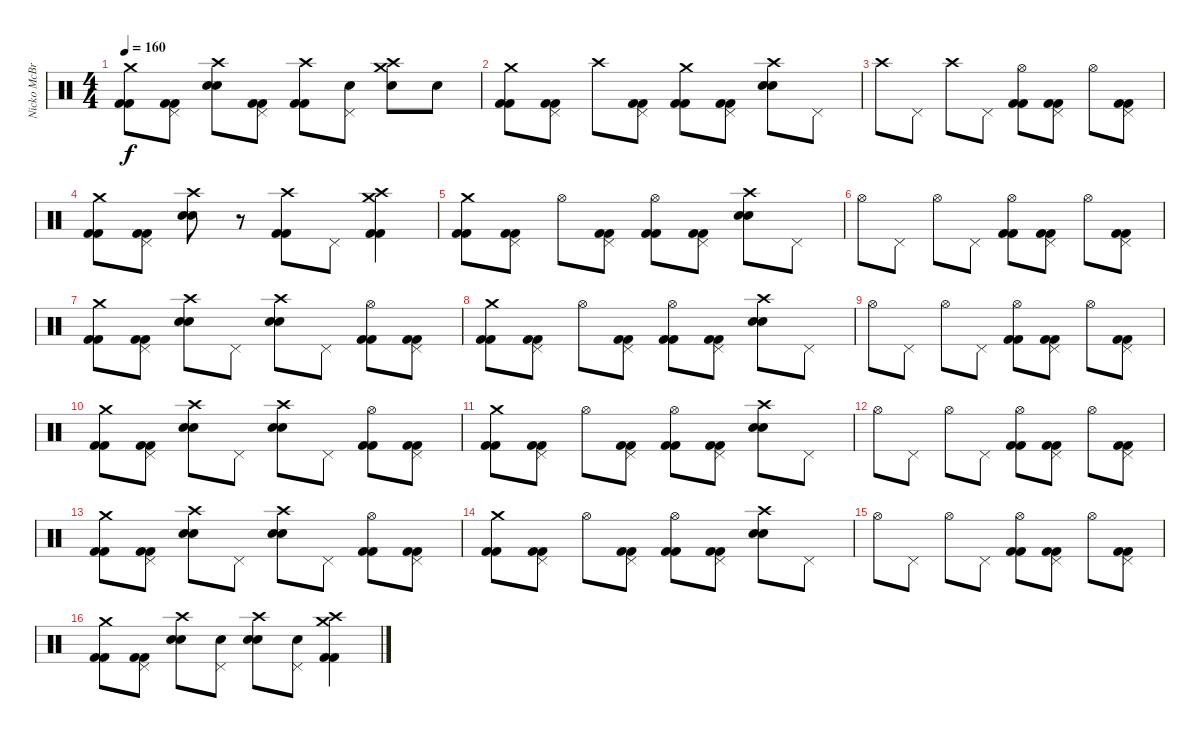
\track ("Nicko McBrain" "Nicko McBr") {instrument percussion}
\staff {score}
\articulation defaults
\ts (4 4)
\tempo 160
\clef neutral
\ks c
("Crash medium (hit)" "Kick (hit) 2" "Kick (hit) 2").8{dy f} ("Pedal Hi-Hat (hit)" "Kick (hit) 2" "Kick (hit) 2").8 ("Crash high (hit)" "Snare (hit) 2" "Snare (hit) 2").8 ("Pedal Hi-Hat (hit)" "Kick (hit) 2" "Kick (hit) 2").8 ("Crash high (hit)" "Kick (hit) 2" "Kick (hit) 2").8 ("Pedal Hi-Hat (hit)" "Snare (hit) 2").8 ("Crash high (hit)" "Crash medium (hit)" "Snare (hit) 2").8 "Snare (hit) 2".8 |
("Crash medium (hit)" "Kick (hit) 2" "Kick (hit) 2").8 ("Pedal Hi-Hat (hit)" "Kick (hit) 2" "Kick (hit) 2").8 "Crash high (hit)".8 ("Pedal Hi-Hat (hit)" "Kick (hit) 2" "Kick (hit) 2").8 ("Crash medium (hit)" "Kick (hit) 2" "Kick (hit) 2").8 ("Pedal Hi-Hat (hit)" "Kick (hit) 2" "Kick (hit) 2").8 ("Crash high (hit)" "Snare (hit) 2" "Snare (hit) 2").8 "Pedal Hi-Hat (hit)".8 |
"Crash high (hit)".8 "Pedal Hi-Hat (hit)".8 "Crash high (hit)".8 "Pedal Hi-Hat (hit)".8 ("Hi-Hat (open)" "Kick (hit) 2" "Kick (hit) 2").8 ("Pedal Hi-Hat (hit)" "Kick (hit) 2" "Kick (hit) 2").8 "Hi-Hat (open)".8 ("Pedal Hi-Hat (hit)" "Kick (hit) 2" "Kick (hit) 2").8 |
("Crash medium (hit)" "Kick (hit) 2" "Kick (hit) 2").8 ("Pedal Hi-Hat (hit)" "Kick (hit) 2" "Kick (hit) 2").8 ("Crash high (hit)" "Snare (hit) 2" "Snare (hit) 2").8 r.8 ("Crash high (hit)" "Kick (hit) 2" "Kick (hit) 2").8 "Pedal Hi-Hat (hit)".8 ("Crash high (hit)" "Crash medium (hit)" "Kick (hit) 2" "Kick (hit) 2").4 |
("Crash medium (hit)" "Kick (hit) 2" "Kick (hit) 2").8 ("Pedal Hi-Hat (hit)" "Kick (hit) 2" "Kick (hit) 2").8 "Hi-Hat (open)".8 ("Pedal Hi-Hat (hit)" "Kick (hit) 2" "Kick (hit) 2").8 ("Hi-Hat (open)" "Kick (hit) 2" "Kick (hit) 2").8 ("Pedal Hi-Hat (hit)" "Kick (hit) 2" "Kick (hit) 2").8 ("Crash high (hit)" "Snare (hit) 2" "Snare (hit) 2").8 "Pedal Hi-Hat (hit)".8 |
"Hi-Hat (open)".8 "Pedal Hi-Hat (hit)".8 "Hi-Hat (open)".8 "Pedal Hi-Hat (hit)".8 ("Hi-Hat (open)" "Kick (hit) 2" "Kick (hit) 2").8 ("Pedal Hi-Hat (hit)" "Kick (hit) 2" "Kick (hit) 2").8 "Hi-Hat (open)".8 ("Pedal Hi-Hat (hit)" "Kick (hit) 2" "Kick (hit) 2").8 |
("Crash medium (hit)" "Kick (hit) 2" "Kick (hit) 2").8 ("Pedal Hi-Hat (hit)" "Kick (hit) 2" "Kick (hit) 2").8 ("Crash high (hit)" "Snare (hit) 2" "Snare (hit) 2").8 "Pedal Hi-Hat (hit)".8 ("Crash high (hit)" "Snare (hit) 2" "Snare (hit) 2").8 "Pedal Hi-Hat (hit)".8 ("Hi-Hat (open)" "Kick (hit) 2" "Kick (hit) 2").8 ("Pedal Hi-Hat (hit)" "Kick (hit) 2" "Kick (hit) 2").8 |
("Crash medium (hit)" "Kick (hit) 2" "Kick (hit) 2").8 ("Pedal Hi-Hat (hit)" "Kick (hit) 2" "Kick (hit) 2").8 "Hi-Hat (open)".8 ("Pedal Hi-Hat (hit)" "Kick (hit) 2" "Kick (hit) 2").8 ("Hi-Hat (open)" "Kick (hit) 2" "Kick (hit) 2").8 ("Pedal Hi-Hat (hit)" "Kick (hit) 2" "Kick (hit) 2").8 ("Crash high (hit)" "Snare (hit) 2" "Snare (hit) 2").8 "Pedal Hi-Hat (hit)".8 |
"Hi-Hat (open)".8 "Pedal Hi-Hat (hit)".8 "Hi-Hat (open)".8 "Pedal Hi-Hat (hit)".8 ("Hi-Hat (open)" "Kick (hit) 2" "Kick (hit) 2").8 ("Pedal Hi-Hat (hit)" "Kick (hit) 2" "Kick (hit) 2").8 "Hi-Hat (open)".8 ("Pedal Hi-Hat (hit)" "Kick (hit) 2" "Kick (hit) 2").8 |
("Crash medium (hit)" "Kick (hit) 2" "Kick (hit) 2").8 ("Pedal Hi-Hat (hit)" "Kick (hit) 2" "Kick (hit) 2").8 ("Crash high (hit)" "Snare (hit) 2" "Snare (hit) 2").8 "Pedal Hi-Hat (hit)".8 ("Crash high (hit)" "Snare (hit) 2" "Snare (hit) 2").8 "Pedal Hi-Hat (hit)".8 ("Hi-Hat (open)" "Kick (hit) 2" "Kick (hit) 2").8 ("Pedal Hi-Hat (hit)" "Kick (hit) 2" "Kick (hit) 2").8 |
("Crash medium (hit)" "Kick (hit) 2" "Kick (hit) 2").8 ("Pedal Hi-Hat (hit)" "Kick (hit) 2" "Kick (hit) 2").8 "Hi-Hat (open)".8 ("Pedal Hi-Hat (hit)" "Kick (hit) 2" "Kick (hit) 2").8 ("Hi-Hat (open)" "Kick (hit) 2" "Kick (hit) 2").8 ("Pedal Hi-Hat (hit)" "Kick (hit) 2" "Kick (hit) 2").8 ("Crash high (hit)" "Snare (hit) 2" "Snare (hit) 2").8 "Pedal Hi-Hat (hit)".8 |
"Hi-Hat (open)".8 "Pedal Hi-Hat (hit)".8 "Hi-Hat (open)".8 "Pedal Hi-Hat (hit)".8 ("Hi-Hat (open)" "Kick (hit) 2" "Kick (hit) 2").8 ("Pedal Hi-Hat (hit)" "Kick (hit) 2" "Kick (hit) 2").8 "Hi-Hat (open)".8 ("Pedal Hi-Hat (hit)" "Kick (hit) 2" "Kick (hit) 2").8 |
("Crash medium (hit)" "Kick (hit) 2" "Kick (hit) 2").8 ("Pedal Hi-Hat (hit)" "Kick (hit) 2" "Kick (hit) 2").8 ("Crash high (hit)" "Snare (hit) 2" "Snare (hit) 2").8 "Pedal Hi-Hat (hit)".8 ("Crash high (hit)" "Snare (hit) 2" "Snare (hit) 2").8 "Pedal Hi-Hat (hit)".8 ("Hi-Hat (open)" "Kick (hit) 2" "Kick (hit) 2").8 ("Pedal Hi-Hat (hit)" "Kick (hit) 2" "Kick (hit) 2").8 |
("Crash medium (hit)" "Kick (hit) 2" "Kick (hit) 2").8 ("Pedal Hi-Hat (hit)" "Kick (hit) 2" "Kick (hit) 2").8 "Hi-Hat (open)".8 ("Pedal Hi-Hat (hit)" "Kick (hit) 2" "Kick (hit) 2").8 ("Hi-Hat (open)" "Kick (hit) 2" "Kick (hit) 2").8 ("Pedal Hi-Hat (hit)" "Kick (hit) 2" "Kick (hit) 2").8 ("Crash high (hit)" "Snare (hit) 2" "Snare (hit) 2").8 "Pedal Hi-Hat (hit)".8 |
"Hi-Hat (open)".8 "Pedal Hi-Hat (hit)".8 "Hi-Hat (open)".8 "Pedal Hi-Hat (hit)".8 ("Hi-Hat (open)" "Kick (hit) 2" "Kick (hit) 2").8 ("Pedal Hi-Hat (hit)" "Kick (hit) 2" "Kick (hit) 2").8 "Hi-Hat (open)".8 ("Pedal Hi-Hat (hit)" "Kick (hit) 2" "Kick (hit) 2").8 |
("Crash medium (hit)" "Kick (hit) 2" "Kick (hit) 2").8 ("Pedal Hi-Hat (hit)" "Kick (hit) 2" "Kick (hit) 2").8 ("Crash high (hit)" "Snare (hit) 2" "Snare (hit) 2").8 ("Pedal Hi-Hat (hit)" "Snare (hit) 2").8 ("Crash high (hit)" "Snare (hit) 2" "Snare (hit) 2").8 ("Pedal Hi-Hat (hit)" "Snare (hit) 2").8 ("Crash high (hit)" "Crash medium (hit)" "Kick (hit) 2" "Kick (hit) 2").4
